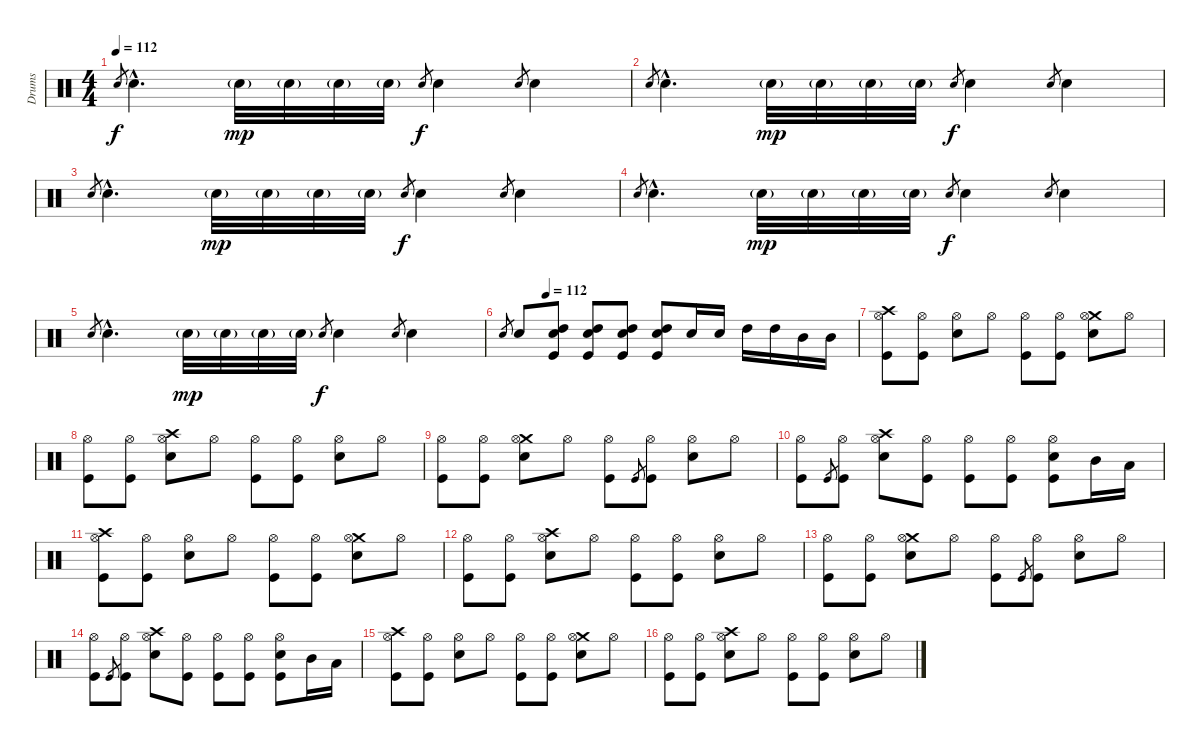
\track ("Drums" "Drums") {instrument percussion}
\staff {score}
\articulation defaults
\ts (4 4)
\tempo 112
\clef neutral
\ks c "Snare (hit) 2".8{gr dy f} "Snare (hit) 2"{hac}.4{d} "Snare (hit) 2"{g}.32{dy mp} "Snare (hit) 2"{g}.32 "Snare (hit) 2"{g}.32 "Snare (hit) 2"{g}.32 "Snare (hit) 2".8{gr dy f} "Snare (hit) 2".4 "Snare (hit) 2".8{gr} "Snare (hit) 2".4
|
"Snare (hit) 2".8{gr} "Snare (hit) 2"{hac}.4{d} "Snare (hit) 2"{g}.32{dy mp} "Snare (hit) 2"{g}.32 "Snare (hit) 2"{g}.32 "Snare (hit) 2"{g}.32 "Snare (hit) 2".8{gr dy f} "Snare (hit) 2".4 "Snare (hit) 2".8{gr} "Snare (hit) 2".4 |
"Snare (hit) 2".8{gr} "Snare (hit) 2"{hac}.4{d} "Snare (hit) 2"{g}.32{dy mp} "Snare (hit) 2"{g}.32 "Snare (hit) 2"{g}.32 "Snare (hit) 2"{g}.32 "Snare (hit) 2".8{gr dy f} "Snare (hit) 2".4 "Snare (hit) 2".8{gr} "Snare (hit) 2".4 |
"Snare (hit) 2".8{gr} "Snare (hit) 2"{hac}.4{d} "Snare (hit) 2"{g}.32{dy mp} "Snare (hit) 2"{g}.32 "Snare (hit) 2"{g}.32 "Snare (hit) 2"{g}.32 "Snare (hit) 2".8{gr dy f} "Snare (hit) 2".4 "Snare (hit) 2".8{gr} "Snare (hit) 2".4 |
"Snare (hit) 2".8{gr} "Snare (hit) 2"{hac}.4{d} "Snare (hit) 2"{g}.32{dy mp} "Snare (hit) 2"{g}.32 "Snare (hit) 2"{g}.32 "Snare (hit) 2"{g}.32 "Snare (hit) 2".8{gr dy f} "Snare (hit) 2".4 "Snare (hit) 2".8{gr} "Snare (hit) 2".4 |
\tempo (112 0.125)
"Snare (hit) 2"{h}.8{gr} "Snare (hit) 2".8 ("Snare (hit) 2" "High Tom (hit)" "Kick (hit)").8{volume 16} ("Snare (hit) 2" "High Tom (hit)" "Kick (hit)").8 ("Snare (hit) 2" "High Tom (hit)" "Kick (hit)").8 ("Snare (hit) 2" "High Tom (hit)" "Kick (hit)").8 "Snare (hit) 2".16 "Snare (hit) 2".16 "High Tom (hit)".16 "High Tom (hit)".16 "Mid Tom (hit)".16 "Mid Tom (hit)".16 |
("Crash high (hit)" "Hi-Hat (open)" "Kick (hit)").8 ("Hi-Hat (open)" "Kick (hit)").8 ("Hi-Hat (open)" "Snare (hit) 2").8 "Hi-Hat (open)".8 ("Hi-Hat (open)" "Kick (hit)").8 ("Hi-Hat (open)" "Kick (hit)").8 ("Crash medium (hit)" "Hi-Hat (open)" "Snare (hit) 2").8 "Hi-Hat (open)".8 |
("Hi-Hat (open)" "Kick (hit)").8 ("Hi-Hat (open)" "Kick (hit)").8 ("Crash high (hit)" "Hi-Hat (open)" "Snare (hit) 2").8 "Hi-Hat (open)".8 ("Hi-Hat (open)" "Kick (hit)").8 ("Hi-Hat (open)" "Kick (hit)").8 ("Hi-Hat (open)" "Snare (hit) 2").8 "Hi-Hat (open)".8 |
("Hi-Hat (open)" "Kick (hit)").8 ("Hi-Hat (open)" "Kick (hit)").8 ("Crash medium (hit)" "Hi-Hat (open)" "Snare (hit) 2").8 "Hi-Hat (open)".8 ("Hi-Hat (open)" "Kick (hit)").8 "Kick (hit)".8{gr} ("Hi-Hat (open)" "Kick (hit)").8 ("Hi-Hat (open)" "Snare (hit) 2").8 "Hi-Hat (open)".8 |
("Hi-Hat (open)" "Kick (hit)").8 "Kick (hit)".8{gr} ("Hi-Hat (open)" "Kick (hit)").8 ("Crash high (hit)" "Hi-Hat (open)" "Snare (hit) 2").8 ("Hi-Hat (open)" "Kick (hit)").8 ("Hi-Hat (open)" "Kick (hit)").8 ("Hi-Hat (open)" "Kick (hit)").8 ("Hi-Hat (open)" "Snare (hit) 2" "Kick (hit)").8 "Mid Tom (hit)".16 "Low Tom (hit)".16 |
("Crash high (hit)" "Hi-Hat (open)" "Kick (hit)").8 ("Hi-Hat (open)" "Kick (hit)").8 ("Hi-Hat (open)" "Snare (hit) 2").8 "Hi-Hat (open)".8 ("Hi-Hat (open)" "Kick (hit)").8 ("Hi-Hat (open)" "Kick (hit)").8 ("Crash medium (hit)" "Hi-Hat (open)" "Snare (hit) 2").8 "Hi-Hat (open)".8 |
("Hi-Hat (open)" "Kick (hit)").8 ("Hi-Hat (open)" "Kick (hit)").8 ("Crash high (hit)" "Hi-Hat (open)" "Snare (hit) 2").8 "Hi-Hat (open)".8 ("Hi-Hat (open)" "Kick (hit)").8 ("Hi-Hat (open)" "Kick (hit)").8 ("Hi-Hat (open)" "Snare (hit) 2").8 "Hi-Hat (open)".8 |
("Hi-Hat (open)" "Kick (hit)").8 ("Hi-Hat (open)" "Kick (hit)").8 ("Crash medium (hit)" "Hi-Hat (open)" "Snare (hit) 2").8 "Hi-Hat (open)".8 ("Hi-Hat (open)" "Kick (hit)").8 "Kick (hit)".8{gr} ("Hi-Hat (open)" "Kick (hit)").8 ("Hi-Hat (open)" "Snare (hit) 2").8 "Hi-Hat (open)".8 |
("Hi-Hat (open)" "Kick (hit)").8 "Kick (hit)".8{gr} ("Hi-Hat (open)" "Kick (hit)").8 ("Crash high (hit)" "Hi-Hat (open)" "Snare (hit) 2").8 ("Hi-Hat (open)" "Kick (hit)").8 ("Hi-Hat (open)" "Kick (hit)").8 ("Hi-Hat (open)" "Kick (hit)").8 ("Hi-Hat (open)" "Snare (hit) 2" "Kick (hit)").8 "Mid Tom (hit)".16 "Low Tom (hit)".16 |
("Crash high (hit)" "Hi-Hat (open)" "Kick (hit)").8 ("Hi-Hat (open)" "Kick (hit)").8 ("Hi-Hat (open)" "Snare (hit) 2").8 "Hi-Hat (open)".8 ("Hi-Hat (open)" "Kick (hit)").8 ("Hi-Hat (open)" "Kick (hit)").8 ("Crash medium (hit)" "Hi-Hat (open)" "Snare (hit) 2").8 "Hi-Hat (open)".8 |
("Hi-Hat (open)" "Kick (hit)").8 ("Hi-Hat (open)" "Kick (hit)").8 ("Crash high (hit)" "Hi-Hat (open)" "Snare (hit) 2").8 "Hi-Hat (open)".8 ("Hi-Hat (open)" "Kick (hit)").8 ("Hi-Hat (open)" "Kick (hit)").8 ("Hi-Hat (open)" "Snare (hit) 2").8 "Hi-Hat (open)".8
